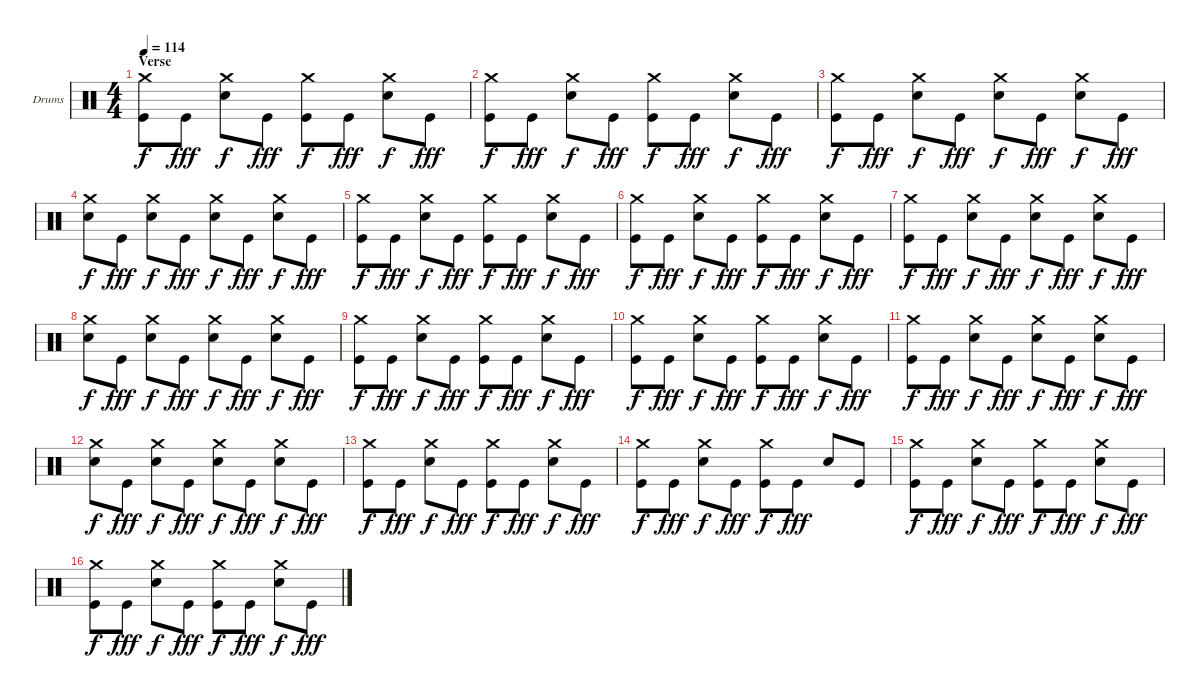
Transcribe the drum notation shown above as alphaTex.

\defaultSystemsLayout 4
\bracketExtendMode groupsimilarinstruments
\firstSystemTrackNameOrientation horizontal
\otherSystemsTrackNameOrientation horizontal
\track ("Drumkit" "Drums") {instrument percussion}
\staff {score}
\articulation defaults
\ts (4 4)
\section ("" "Verse")
\tempo 114
\clef neutral
\scale
0.973518
\ks c
("Crash medium (hit)" "Kick (hit)").8{dy f} "Kick (hit)".8{dy fff} ("Crash medium (hit)" "Snare (hit) 2").8{dy f} "Kick (hit)".8{dy fff} ("Crash medium (hit)" "Kick (hit)").8{dy f} "Kick (hit)".8{dy fff} ("Crash medium (hit)" "Snare (hit) 2").8{dy f} "Kick (hit)".8{dy fff} |
\scale
0.973518 ("Crash medium (hit)" "Kick (hit)").8{dy f} "Kick (hit)".8{dy fff} ("Crash medium (hit)" "Snare (hit) 2").8{dy f} "Kick (hit)".8{dy fff} ("Crash medium (hit)" "Kick (hit)").8{dy f} "Kick (hit)".8{dy fff} ("Crash medium (hit)" "Snare (hit) 2").8{dy f} "Kick (hit)".8{dy fff} |
\scale
1.05296 ("Crash medium (hit)" "Kick (hit)").8{dy f} "Kick (hit)".8{dy fff} ("Crash medium (hit)" "Snare (hit) 2").8{dy f} "Kick (hit)".8{dy fff} ("Crash medium (hit)" "Snare (hit) 2").8{dy f} "Kick (hit)".8{dy fff} ("Crash medium (hit)" "Snare (hit) 2").8{dy f} "Kick (hit)".8{dy fff} |
\scale
0.973518 ("Crash medium (hit)" "Snare (hit) 2").8{dy f} "Kick (hit)".8{dy fff} ("Crash medium (hit)" "Snare (hit) 2").8{dy f} "Kick (hit)".8{dy fff} ("Crash medium (hit)" "Snare (hit) 2").8{dy f} "Kick (hit)".8{dy fff} ("Crash medium (hit)" "Snare (hit) 2").8{dy f} "Kick (hit)".8{dy fff} |
\scale
0.973518 ("Crash medium (hit)" "Kick (hit)").8{dy f} "Kick (hit)".8{dy fff} ("Crash medium (hit)" "Snare (hit) 2").8{dy f} "Kick (hit)".8{dy fff} ("Crash medium (hit)" "Kick (hit)").8{dy f} "Kick (hit)".8{dy fff} ("Crash medium (hit)" "Snare (hit) 2").8{dy f} "Kick (hit)".8{dy fff} |
\scale
1.05296 ("Crash medium (hit)" "Kick (hit)").8{dy f} "Kick (hit)".8{dy fff} ("Crash medium (hit)" "Snare (hit) 2").8{dy f} "Kick (hit)".8{dy fff} ("Crash medium (hit)" "Kick (hit)").8{dy f} "Kick (hit)".8{dy fff} ("Crash medium (hit)" "Snare (hit) 2").8{dy f} "Kick (hit)".8{dy fff} |
\scale
0.973518 ("Crash medium (hit)" "Kick (hit)").8{dy f} "Kick (hit)".8{dy fff} ("Crash medium (hit)" "Snare (hit) 2").8{dy f} "Kick (hit)".8{dy fff} ("Crash medium (hit)" "Snare (hit) 2").8{dy f} "Kick (hit)".8{dy fff} ("Crash medium (hit)" "Snare (hit) 2").8{dy f} "Kick (hit)".8{dy fff} |
\scale
0.973518 ("Crash medium (hit)" "Snare (hit) 2").8{dy f} "Kick (hit)".8{dy fff} ("Crash medium (hit)" "Snare (hit) 2").8{dy f} "Kick (hit)".8{dy fff} ("Crash medium (hit)" "Snare (hit) 2").8{dy f} "Kick (hit)".8{dy fff} ("Crash medium (hit)" "Snare (hit) 2").8{dy f} "Kick (hit)".8{dy fff} |
\scale
1.05296 ("Crash medium (hit)" "Kick (hit)").8{dy f} "Kick (hit)".8{dy fff} ("Crash medium (hit)" "Snare (hit) 2").8{dy f} "Kick (hit)".8{dy fff} ("Crash medium (hit)" "Kick (hit)").8{dy f} "Kick (hit)".8{dy fff} ("Crash medium (hit)" "Snare (hit) 2").8{dy f} "Kick (hit)".8{dy fff} |
\scale
0.973518 ("Crash medium (hit)" "Kick (hit)").8{dy f} "Kick (hit)".8{dy fff} ("Crash medium (hit)" "Snare (hit) 2").8{dy f} "Kick (hit)".8{dy fff} ("Crash medium (hit)" "Kick (hit)").8{dy f} "Kick (hit)".8{dy fff} ("Crash medium (hit)" "Snare (hit) 2").8{dy f} "Kick (hit)".8{dy fff} |
\scale
0.973518 ("Crash medium (hit)" "Kick (hit)").8{dy f} "Kick (hit)".8{dy fff} ("Crash medium (hit)" "Snare (hit) 2").8{dy f} "Kick (hit)".8{dy fff} ("Crash medium (hit)" "Snare (hit) 2").8{dy f} "Kick (hit)".8{dy fff} ("Crash medium (hit)" "Snare (hit) 2").8{dy f} "Kick (hit)".8{dy fff} |
\scale
1.05296 ("Crash medium (hit)" "Snare (hit) 2").8{dy f} "Kick (hit)".8{dy fff} ("Crash medium (hit)" "Snare (hit) 2").8{dy f} "Kick (hit)".8{dy fff} ("Crash medium (hit)" "Snare (hit) 2").8{dy f} "Kick (hit)".8{dy fff} ("Crash medium (hit)" "Snare (hit) 2").8{dy f} "Kick (hit)".8{dy fff} |
\scale
0.973518 ("Crash medium (hit)" "Kick (hit)").8{dy f} "Kick (hit)".8{dy fff} ("Crash medium (hit)" "Snare (hit) 2").8{dy f} "Kick (hit)".8{dy fff} ("Crash medium (hit)" "Kick (hit)").8{dy f} "Kick (hit)".8{dy fff} ("Crash medium (hit)" "Snare (hit) 2").8{dy f} "Kick (hit)".8{dy fff} |
\scale
0.973518 ("Crash medium (hit)" "Kick (hit)").8{dy f} "Kick (hit)".8{dy fff} ("Crash medium (hit)" "Snare (hit) 2").8{dy f} "Kick (hit)".8{dy fff} ("Crash medium (hit)" "Kick (hit)").8{dy f} "Kick (hit)".8{dy fff} "Snare (hit) 2".8 "Kick (hit)".8 |
\scale
1.05296 ("Crash medium (hit)" "Kick (hit)").8{dy f} "Kick (hit)".8{dy fff} ("Crash medium (hit)" "Snare (hit) 2").8{dy f} "Kick (hit)".8{dy fff} ("Crash medium (hit)" "Kick (hit)").8{dy f} "Kick (hit)".8{dy fff} ("Crash medium (hit)" "Snare (hit) 2").8{dy f} "Kick (hit)".8{dy fff} |
\scale
0.973518 ("Crash medium (hit)" "Kick (hit)").8{dy f} "Kick (hit)".8{dy fff} ("Crash medium (hit)" "Snare (hit) 2").8{dy f} "Kick (hit)".8{dy fff} ("Crash medium (hit)" "Kick (hit)").8{dy f} "Kick (hit)".8{dy fff} ("Crash medium (hit)" "Snare (hit) 2").8{dy f} "Kick (hit)".8{dy fff}
